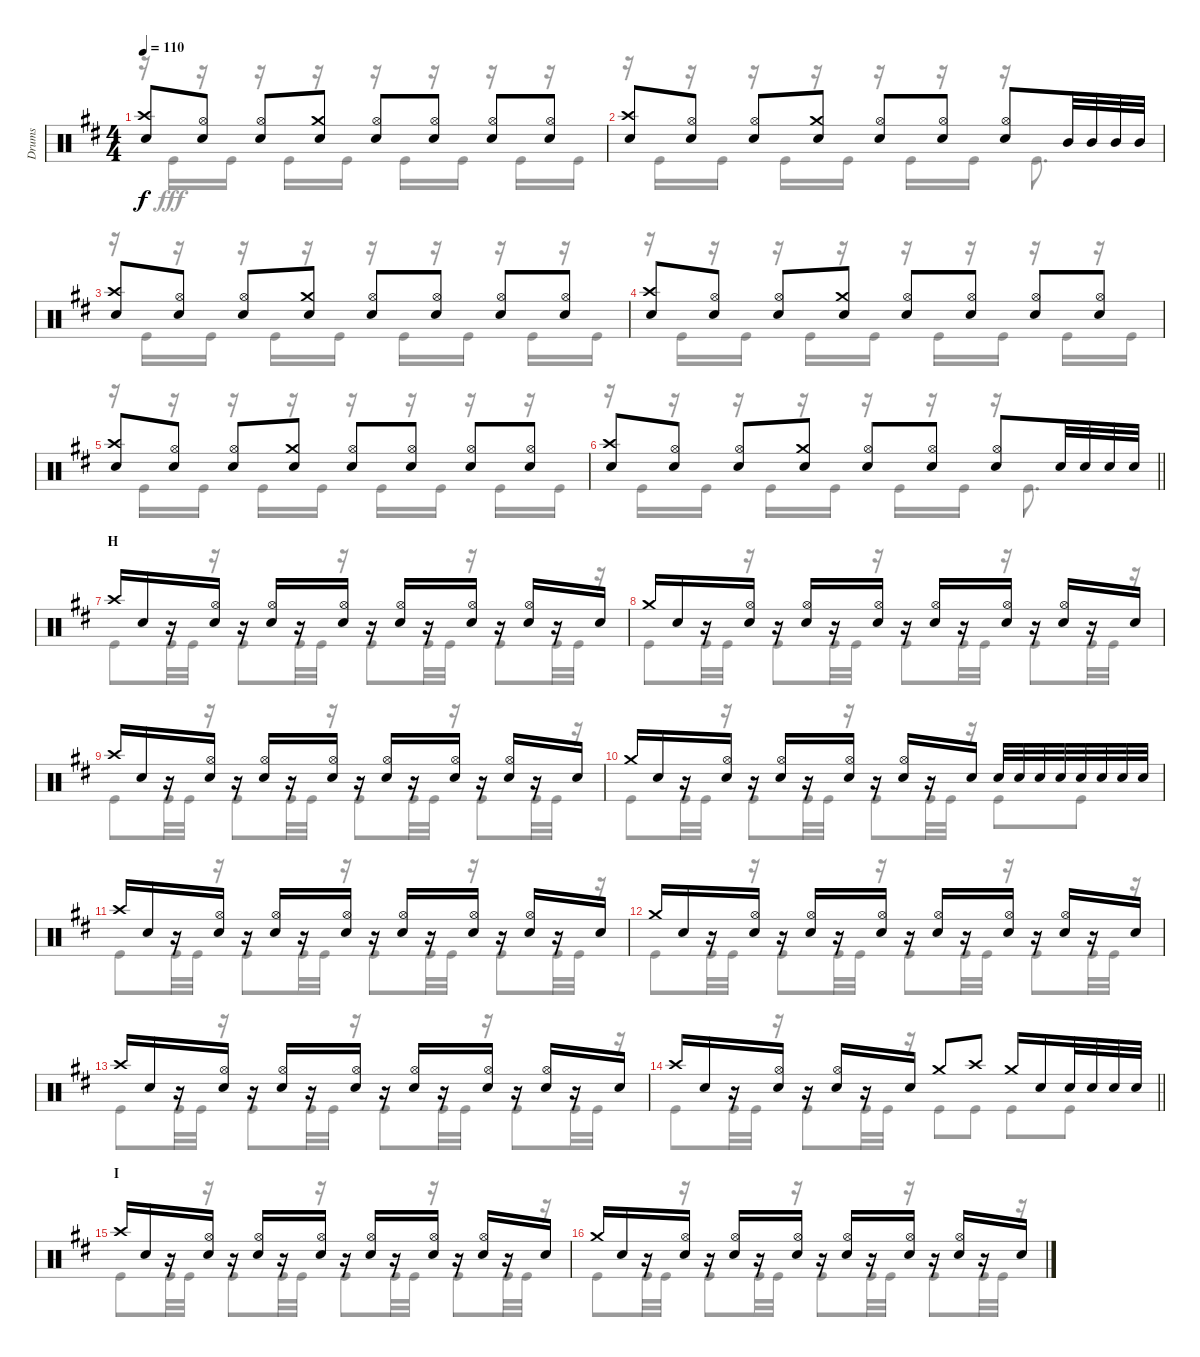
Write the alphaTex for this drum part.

\track ("Drums" "Drums") {instrument percussion}
\staff {score}
\articulation defaults
\voice
\ts (4 4)
\tempo 110
\clef neutral
\ks d
("Crash high (hit)" "Snare (hit) 2").8{dy f} ("Hi-Hat (open)" "Snare (hit) 2").8 ("Hi-Hat (open)" "Snare (hit) 2").8 ("Crash medium (hit)" "Snare (hit) 2").8 ("Hi-Hat (open)" "Snare (hit) 2").8 ("Hi-Hat (open)" "Snare (hit) 2").8 ("Hi-Hat (open)" "Snare (hit) 2").8 ("Hi-Hat (open)" "Snare (hit) 2").8 |
("Crash high (hit)" "Snare (hit) 2").8 ("Hi-Hat (open)" "Snare (hit) 2").8 ("Hi-Hat (open)" "Snare (hit) 2").8 ("Crash medium (hit)" "Snare (hit) 2").8 ("Hi-Hat (open)" "Snare (hit) 2").8 ("Hi-Hat (open)" "Snare (hit) 2").8 ("Hi-Hat (open)" "Snare (hit) 2").8 "Mid Tom (hit)".32 "Mid Tom (hit)".32 "Mid Tom (hit)".32 "Mid Tom (hit)".32 |
("Crash high (hit)" "Snare (hit) 2").8 ("Hi-Hat (open)" "Snare (hit) 2").8 ("Hi-Hat (open)" "Snare (hit) 2").8 ("Crash medium (hit)" "Snare (hit) 2").8 ("Hi-Hat (open)" "Snare (hit) 2").8 ("Hi-Hat (open)" "Snare (hit) 2").8 ("Hi-Hat (open)" "Snare (hit) 2").8 ("Hi-Hat (open)" "Snare (hit) 2").8 |
("Crash high (hit)" "Snare (hit) 2").8 ("Hi-Hat (open)" "Snare (hit) 2").8 ("Hi-Hat (open)" "Snare (hit) 2").8 ("Crash medium (hit)" "Snare (hit) 2").8 ("Hi-Hat (open)" "Snare (hit) 2").8 ("Hi-Hat (open)" "Snare (hit) 2").8 ("Hi-Hat (open)" "Snare (hit) 2").8 ("Hi-Hat (open)" "Snare (hit) 2").8 |
("Crash high (hit)" "Snare (hit) 2").8 ("Hi-Hat (open)" "Snare (hit) 2").8 ("Hi-Hat (open)" "Snare (hit) 2").8 ("Crash medium (hit)" "Snare (hit) 2").8 ("Hi-Hat (open)" "Snare (hit) 2").8 ("Hi-Hat (open)" "Snare (hit) 2").8 ("Hi-Hat (open)" "Snare (hit) 2").8 ("Hi-Hat (open)" "Snare (hit) 2").8 |
\barLineRight lightlight
("Crash high (hit)" "Snare (hit) 2").8 ("Hi-Hat (open)" "Snare (hit) 2").8 ("Hi-Hat (open)" "Snare (hit) 2").8 ("Crash medium (hit)" "Snare (hit) 2").8 ("Hi-Hat (open)" "Snare (hit) 2").8 ("Hi-Hat (open)" "Snare (hit) 2").8 ("Hi-Hat (open)" "Snare (hit) 2").8 "Snare (hit) 2".32 "Snare (hit) 2".32 "Snare (hit) 2".32 "Snare (hit) 2".32 |
\section ("" "H")
"Crash high (hit)".16 "Snare (hit) 2".16 r.16 ("Hi-Hat (open)" "Snare (hit) 2").16 r.16 ("Hi-Hat (open)" "Snare (hit) 2").16 r.16 ("Hi-Hat (open)" "Snare (hit) 2").16 r.16 ("Hi-Hat (open)" "Snare (hit) 2").16 r.16 ("Hi-Hat (open)" "Snare (hit) 2").16 r.16 ("Hi-Hat (open)" "Snare (hit) 2").16 r.16 "Snare (hit) 2".16 |
"Crash medium (hit)".16 "Snare (hit) 2".16 r.16 ("Hi-Hat (open)" "Snare (hit) 2").16 r.16 ("Hi-Hat (open)" "Snare (hit) 2").16 r.16 ("Hi-Hat (open)" "Snare (hit) 2").16 r.16 ("Hi-Hat (open)" "Snare (hit) 2").16 r.16 ("Hi-Hat (open)" "Snare (hit) 2").16 r.16 ("Hi-Hat (open)" "Snare (hit) 2").16 r.16 "Snare (hit) 2".16 |
"Crash high (hit)".16 "Snare (hit) 2".16 r.16 ("Hi-Hat (open)" "Snare (hit) 2").16 r.16 ("Hi-Hat (open)" "Snare (hit) 2").16 r.16 ("Hi-Hat (open)" "Snare (hit) 2").16 r.16 ("Hi-Hat (open)" "Snare (hit) 2").16 r.16 ("Hi-Hat (open)" "Snare (hit) 2").16 r.16 ("Hi-Hat (open)" "Snare (hit) 2").16 r.16 "Snare (hit) 2".16 |
"Crash medium (hit)".16 "Snare (hit) 2".16 r.16 ("Hi-Hat (open)" "Snare (hit) 2").16 r.16 ("Hi-Hat (open)" "Snare (hit) 2").16 r.16 ("Hi-Hat (open)" "Snare (hit) 2").16 r.16 ("Hi-Hat (open)" "Snare (hit) 2").16 r.16 "Snare (hit) 2".16 "Snare (hit) 2".32 "Snare (hit) 2".32 "Snare (hit) 2".32 "Snare (hit) 2".32 "Snare (hit) 2".32 "Snare (hit) 2".32 "Snare (hit) 2".32 "Snare (hit) 2".32 |
"Crash high (hit)".16 "Snare (hit) 2".16 r.16 ("Hi-Hat (open)" "Snare (hit) 2").16 r.16 ("Hi-Hat (open)" "Snare (hit) 2").16 r.16 ("Hi-Hat (open)" "Snare (hit) 2").16 r.16 ("Hi-Hat (open)" "Snare (hit) 2").16 r.16 ("Hi-Hat (open)" "Snare (hit) 2").16 r.16 ("Hi-Hat (open)" "Snare (hit) 2").16 r.16 "Snare (hit) 2".16 |
"Crash medium (hit)".16 "Snare (hit) 2".16 r.16 ("Hi-Hat (open)" "Snare (hit) 2").16 r.16 ("Hi-Hat (open)" "Snare (hit) 2").16 r.16 ("Hi-Hat (open)" "Snare (hit) 2").16 r.16 ("Hi-Hat (open)" "Snare (hit) 2").16 r.16 ("Hi-Hat (open)" "Snare (hit) 2").16 r.16 ("Hi-Hat (open)" "Snare (hit) 2").16 r.16 "Snare (hit) 2".16 |
"Crash high (hit)".16 "Snare (hit) 2".16 r.16 ("Hi-Hat (open)" "Snare (hit) 2").16 r.16 ("Hi-Hat (open)" "Snare (hit) 2").16 r.16 ("Hi-Hat (open)" "Snare (hit) 2").16 r.16 ("Hi-Hat (open)" "Snare (hit) 2").16 r.16 ("Hi-Hat (open)" "Snare (hit) 2").16 r.16 ("Hi-Hat (open)" "Snare (hit) 2").16 r.16 "Snare (hit) 2".16 |
\barLineRight lightlight "Crash high (hit)".16 "Snare (hit) 2".16
r.16 ("Hi-Hat (open)" "Snare (hit) 2").16 r.16 ("Hi-Hat (open)" "Snare (hit) 2").16 r.16 "Snare (hit) 2".16 "Crash medium (hit)".8 "Crash high (hit)".8 "Crash medium (hit)".16 "Snare (hit) 2".16 "Snare (hit) 2".32 "Snare (hit) 2".32 "Snare (hit) 2".32 "Snare (hit) 2".32 |
\section ("" "I")
"Crash high (hit)".16 "Snare (hit) 2".16 r.16 ("Hi-Hat (open)" "Snare (hit) 2").16 r.16 ("Hi-Hat (open)" "Snare (hit) 2").16 r.16 ("Hi-Hat (open)" "Snare (hit) 2").16 r.16 ("Hi-Hat (open)" "Snare (hit) 2").16 r.16 ("Hi-Hat (open)" "Snare (hit) 2").16 r.16 ("Hi-Hat (open)" "Snare (hit) 2").16 r.16 "Snare (hit) 2".16 |
"Crash medium (hit)".16 "Snare (hit) 2".16 r.16 ("Hi-Hat (open)" "Snare (hit) 2").16 r.16 ("Hi-Hat (open)" "Snare (hit) 2").16 r.16 ("Hi-Hat (open)" "Snare (hit) 2").16 r.16 ("Hi-Hat (open)" "Snare (hit) 2").16 r.16 ("Hi-Hat (open)" "Snare (hit) 2").16 r.16 ("Hi-Hat (open)" "Snare (hit) 2").16 r.16 "Snare (hit) 2".16
\voice
\clef neutral
\ottava regular
\simile none
\ks d
r.16{dy fff} "Kick (hit)".16 r.16 "Kick (hit)".16 r.16 "Kick (hit)".16 r.16 "Kick (hit)".16 r.16 "Kick (hit)".16 r.16 "Kick (hit)".16 r.16 "Kick (hit)".16 r.16 "Kick (hit)".16 |
r.16 "Kick (hit)".16 r.16 "Kick (hit)".16 r.16 "Kick (hit)".16 r.16 "Kick (hit)".16 r.16 "Kick (hit)".16 r.16 "Kick (hit)".16 r.16 "Kick (hit)".8{d} |
r.16 "Kick (hit)".16 r.16 "Kick (hit)".16 r.16 "Kick (hit)".16 r.16 "Kick (hit)".16 r.16 "Kick (hit)".16 r.16 "Kick (hit)".16 r.16 "Kick (hit)".16 r.16 "Kick (hit)".16 |
r.16 "Kick (hit)".16 r.16 "Kick (hit)".16 r.16 "Kick (hit)".16 r.16 "Kick (hit)".16 r.16 "Kick (hit)".16 r.16 "Kick (hit)".16 r.16 "Kick (hit)".16 r.16 "Kick (hit)".16 |
r.16 "Kick (hit)".16 r.16 "Kick (hit)".16 r.16 "Kick (hit)".16 r.16 "Kick (hit)".16 r.16 "Kick (hit)".16 r.16 "Kick (hit)".16 r.16 "Kick (hit)".16 r.16 "Kick (hit)".16 |
\barLineRight lightlight
r.16 "Kick (hit)".16 r.16 "Kick (hit)".16 r.16 "Kick (hit)".16 r.16 "Kick (hit)".16 r.16 "Kick (hit)".16 r.16 "Kick (hit)".16 r.16 "Kick (hit)".8{d} |
"Kick (hit)".8 "Kick (hit)".32 "Kick (hit)".32 r.16 "Kick (hit)".8 "Kick (hit)".32 "Kick (hit)".32 r.16 "Kick (hit)".8 "Kick (hit)".32 "Kick (hit)".32 r.16 "Kick (hit)".8 "Kick (hit)".32 "Kick (hit)".32 r.16 |
"Kick (hit)".8 "Kick (hit)".32 "Kick (hit)".32 r.16 "Kick (hit)".8 "Kick (hit)".32 "Kick (hit)".32 r.16 "Kick (hit)".8 "Kick (hit)".32 "Kick (hit)".32 r.16 "Kick (hit)".8 "Kick (hit)".32 "Kick (hit)".32 r.16 |
"Kick (hit)".8 "Kick (hit)".32 "Kick (hit)".32 r.16 "Kick (hit)".8 "Kick (hit)".32 "Kick (hit)".32 r.16 "Kick (hit)".8 "Kick (hit)".32 "Kick (hit)".32 r.16 "Kick (hit)".8 "Kick (hit)".32 "Kick (hit)".32 r.16 |
"Kick (hit)".8 "Kick (hit)".32 "Kick (hit)".32 r.16 "Kick (hit)".8 "Kick (hit)".32 "Kick (hit)".32 r.16 "Kick (hit)".8 "Kick (hit)".32 "Kick (hit)".32 r.16 "Kick (hit)".8 "Kick (hit)".8 |
"Kick (hit)".8 "Kick (hit)".32 "Kick (hit)".32 r.16 "Kick (hit)".8 "Kick (hit)".32 "Kick (hit)".32 r.16 "Kick (hit)".8 "Kick (hit)".32 "Kick (hit)".32 r.16 "Kick (hit)".8 "Kick (hit)".32 "Kick (hit)".32 r.16 |
"Kick (hit)".8 "Kick (hit)".32 "Kick (hit)".32 r.16 "Kick (hit)".8 "Kick (hit)".32 "Kick (hit)".32 r.16 "Kick (hit)".8 "Kick (hit)".32 "Kick (hit)".32 r.16 "Kick (hit)".8 "Kick (hit)".32 "Kick (hit)".32 r.16 |
"Kick (hit)".8 "Kick (hit)".32 "Kick (hit)".32 r.16 "Kick (hit)".8 "Kick (hit)".32 "Kick (hit)".32 r.16 "Kick (hit)".8 "Kick (hit)".32 "Kick (hit)".32 r.16 "Kick (hit)".8 "Kick (hit)".32 "Kick (hit)".32 r.16 |
\barLineRight lightlight "Kick (hit)".8 "Kick (hit)".32 "Kick (hit)".32
r.16 "Kick (hit)".8 "Kick (hit)".32 "Kick (hit)".32 r.16 "Kick (hit)".8 "Kick (hit)".8 "Kick (hit)".8 "Kick (hit)".8 |
"Kick (hit)".8 "Kick (hit)".32 "Kick (hit)".32 r.16 "Kick (hit)".8 "Kick (hit)".32 "Kick (hit)".32 r.16 "Kick (hit)".8 "Kick (hit)".32 "Kick (hit)".32 r.16 "Kick (hit)".8 "Kick (hit)".32 "Kick (hit)".32 r.16 |
"Kick (hit)".8 "Kick (hit)".32 "Kick (hit)".32 r.16 "Kick (hit)".8 "Kick (hit)".32 "Kick (hit)".32 r.16 "Kick (hit)".8 "Kick (hit)".32 "Kick (hit)".32 r.16 "Kick (hit)".8 "Kick (hit)".32 "Kick (hit)".32 r.16
